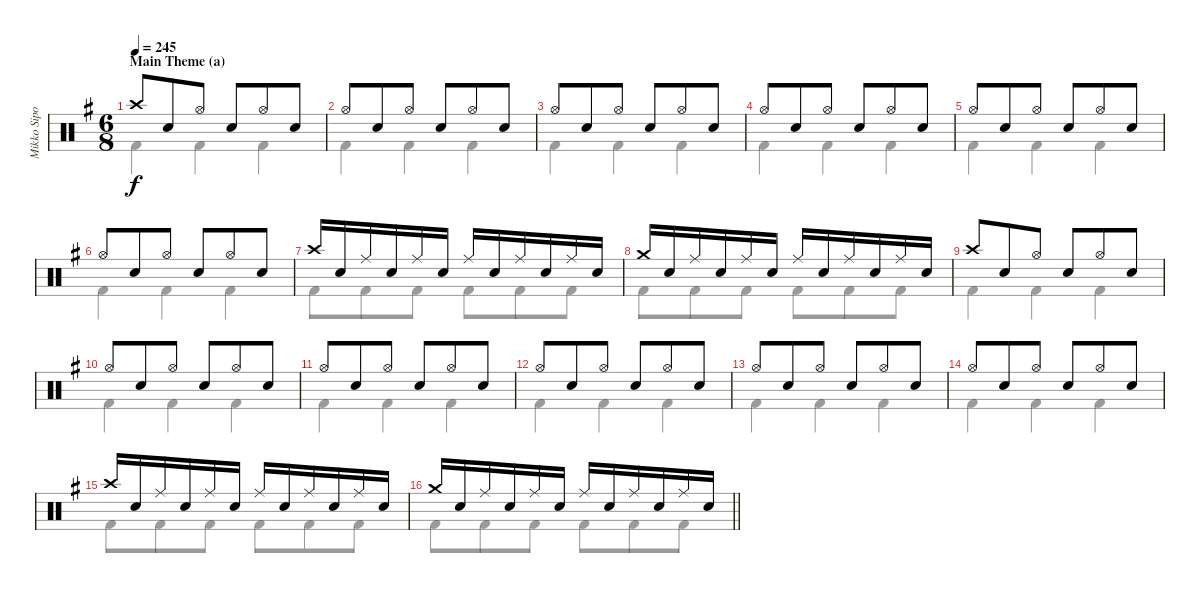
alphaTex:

\track ("Mikko Sipola (drums)" "Mikko Sipo") {instrument percussion}
\staff {score}
\articulation defaults
\voice
\ts (6 8)
\section ("" "Main Theme (a)")
\tempo 245
\clef neutral
\ks eminor "Crash high (hit)".8{dy f} "Electric Snare (hit)".8 "Hi-Hat (open)".8 "Electric Snare (hit)".8 "Hi-Hat (open)".8 "Electric Snare (hit)".8
|
"Hi-Hat (open)".8 "Electric Snare (hit)".8 "Hi-Hat (open)".8 "Electric Snare (hit)".8 "Hi-Hat (open)".8 "Electric Snare (hit)".8 |
"Hi-Hat (open)".8 "Electric Snare (hit)".8 "Hi-Hat (open)".8 "Electric Snare (hit)".8 "Hi-Hat (open)".8 "Electric Snare (hit)".8 |
"Hi-Hat (open)".8 "Electric Snare (hit)".8 "Hi-Hat (open)".8 "Electric Snare (hit)".8 "Hi-Hat (open)".8 "Electric Snare (hit)".8 |
"Hi-Hat (open)".8 "Electric Snare (hit)".8 "Hi-Hat (open)".8 "Electric Snare (hit)".8 "Hi-Hat (open)".8 "Electric Snare (hit)".8 |
"Hi-Hat (open)".8 "Electric Snare (hit)".8 "Hi-Hat (open)".8 "Electric Snare (hit)".8 "Hi-Hat (open)".8 "Electric Snare (hit)".8 |
"Crash high (hit)".16 "Electric Snare (hit)".16 "Ride (middle)".16 "Electric Snare (hit)".16 "Ride (middle)".16 "Electric Snare (hit)".16 "Ride (middle)".16 "Electric Snare (hit)".16 "Ride (middle)".16 "Electric Snare (hit)".16 "Ride (middle)".16 "Electric Snare (hit)".16 |
"Crash medium (hit)".16 "Electric Snare (hit)".16 "Ride (middle)".16 "Electric Snare (hit)".16 "Ride (middle)".16 "Electric Snare (hit)".16 "Ride (middle)".16 "Electric Snare (hit)".16 "Ride (middle)".16 "Electric Snare (hit)".16 "Ride (middle)".16 "Electric Snare (hit)".16 |
"Crash high (hit)".8 "Electric Snare (hit)".8 "Hi-Hat (open)".8 "Electric Snare (hit)".8 "Hi-Hat (open)".8 "Electric Snare (hit)".8 |
"Hi-Hat (open)".8 "Electric Snare (hit)".8 "Hi-Hat (open)".8 "Electric Snare (hit)".8 "Hi-Hat (open)".8 "Electric Snare (hit)".8 |
"Hi-Hat (open)".8 "Electric Snare (hit)".8 "Hi-Hat (open)".8 "Electric Snare (hit)".8 "Hi-Hat (open)".8 "Electric Snare (hit)".8 |
"Hi-Hat (open)".8 "Electric Snare (hit)".8 "Hi-Hat (open)".8 "Electric Snare (hit)".8 "Hi-Hat (open)".8 "Electric Snare (hit)".8 |
"Hi-Hat (open)".8 "Electric Snare (hit)".8 "Hi-Hat (open)".8 "Electric Snare (hit)".8 "Hi-Hat (open)".8 "Electric Snare (hit)".8 |
"Hi-Hat (open)".8 "Electric Snare (hit)".8 "Hi-Hat (open)".8 "Electric Snare (hit)".8 "Hi-Hat (open)".8 "Electric Snare (hit)".8 |
"Crash high (hit)".16 "Electric Snare (hit)".16 "Ride (middle)".16 "Electric Snare (hit)".16 "Ride (middle)".16 "Electric Snare (hit)".16 "Ride (middle)".16 "Electric Snare (hit)".16 "Ride (middle)".16 "Electric Snare (hit)".16 "Ride (middle)".16 "Electric Snare (hit)".16 |
\barLineRight lightlight "Crash medium (hit)".16 "Electric Snare (hit)".16 "Ride (middle)".16 "Electric Snare (hit)".16 "Ride (middle)".16 "Electric Snare (hit)".16 "Ride (middle)".16 "Electric Snare (hit)".16 "Ride (middle)".16 "Electric Snare (hit)".16 "Ride (middle)".16 "Electric Snare (hit)".16
\voice
\clef neutral
\ottava regular
\simile none
\ks eminor "Kick (hit) 2".4{dy f} "Kick (hit) 2".4 "Kick (hit) 2".4
|
"Kick (hit) 2".4 "Kick (hit) 2".4 "Kick (hit) 2".4 |
"Kick (hit) 2".4 "Kick (hit) 2".4 "Kick (hit) 2".4 |
"Kick (hit) 2".4 "Kick (hit) 2".4 "Kick (hit) 2".4 |
"Kick (hit) 2".4 "Kick (hit) 2".4 "Kick (hit) 2".4 |
"Kick (hit) 2".4 "Kick (hit) 2".4 "Kick (hit) 2".4 |
"Kick (hit) 2".8 "Kick (hit) 2".8 "Kick (hit) 2".8 "Kick (hit) 2".8 "Kick (hit) 2".8 "Kick (hit) 2".8 |
"Kick (hit) 2".8 "Kick (hit) 2".8 "Kick (hit) 2".8 "Kick (hit) 2".8 "Kick (hit) 2".8 "Kick (hit) 2".8 |
"Kick (hit) 2".4 "Kick (hit) 2".4 "Kick (hit) 2".4 |
"Kick (hit) 2".4 "Kick (hit) 2".4 "Kick (hit) 2".4 |
"Kick (hit) 2".4 "Kick (hit) 2".4 "Kick (hit) 2".4 |
"Kick (hit) 2".4 "Kick (hit) 2".4 "Kick (hit) 2".4 |
"Kick (hit) 2".4 "Kick (hit) 2".4 "Kick (hit) 2".4 |
"Kick (hit) 2".4 "Kick (hit) 2".4 "Kick (hit) 2".4 |
"Kick (hit) 2".8 "Kick (hit) 2".8 "Kick (hit) 2".8 "Kick (hit) 2".8 "Kick (hit) 2".8 "Kick (hit) 2".8 |
\barLineRight lightlight "Kick (hit) 2".8 "Kick (hit) 2".8 "Kick (hit) 2".8 "Kick (hit) 2".8 "Kick (hit) 2".8 "Kick (hit) 2".8
